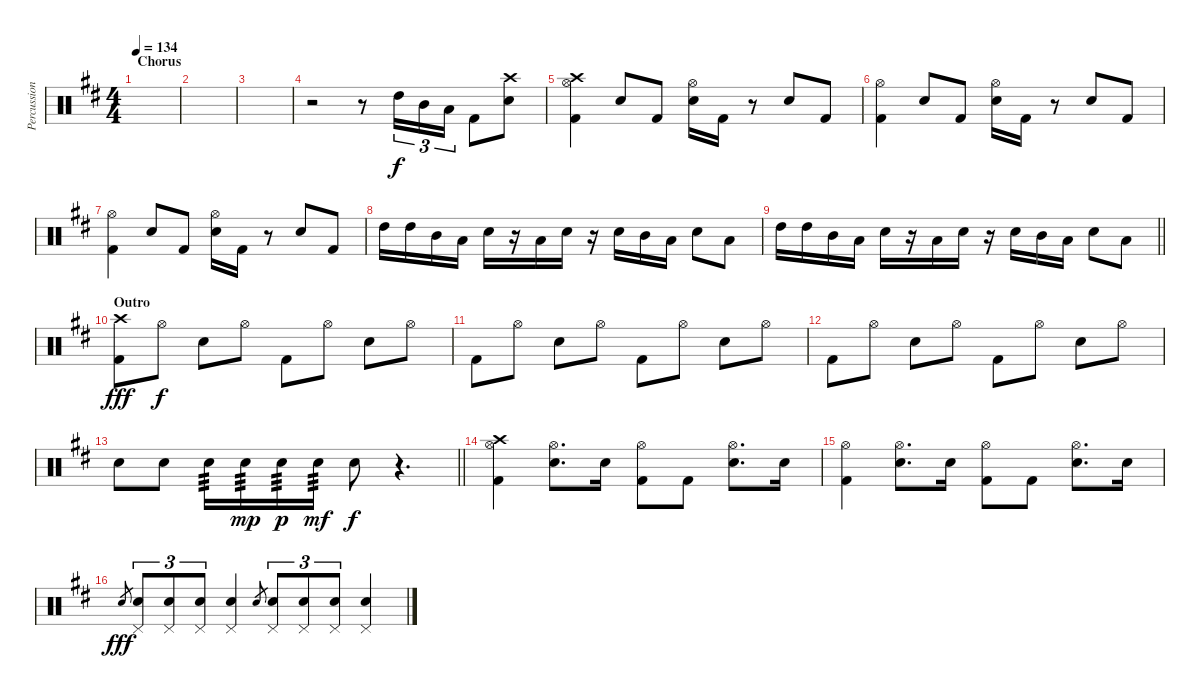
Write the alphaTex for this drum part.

\track ("Percussion" "Percussion") {instrument percussion}
\staff {score}
\articulation defaults
\ts (4 4)
\section ("" "Chorus")
\tempo 134
\clef neutral
\ks bminor
|
|
|
r.2 r.8 "High Tom (hit)".16{tu (3 2) dy f} "Mid Tom (hit)".16{tu (3 2)} "Low Tom (hit)".16{tu (3 2)} "Kick (hit) 2".8 ("Crash high (hit)" "Snare (hit) 2").8 |
("Crash high (hit)" "Hi-Hat (open)" "Kick (hit) 2").4 "Snare (hit) 2".8 "Kick (hit) 2".8 ("Hi-Hat (open)" "Snare (hit) 2").16 "Kick (hit) 2".16 r.8 "Snare (hit) 2".8 "Kick (hit) 2".8 |
("Hi-Hat (open)" "Kick (hit) 2").4 "Snare (hit) 2".8 "Kick (hit) 2".8 ("Hi-Hat (open)" "Snare (hit) 2").16 "Kick (hit) 2".16 r.8 "Snare (hit) 2".8 "Kick (hit) 2".8 |
("Hi-Hat (open)" "Kick (hit) 2").4 "Snare (hit) 2".8 "Kick (hit) 2".8 ("Hi-Hat (open)" "Snare (hit) 2").16 "Kick (hit) 2".16 r.8 "Snare (hit) 2".8 "Kick (hit) 2".8 |
"High Tom (hit)".16 "High Tom (hit)".16 "Mid Tom (hit)".16 "Low Tom (hit)".16 "Snare (hit) 2".16 r.16 "Low Tom (hit)".16 "Snare (hit) 2".16 r.16 "Snare (hit) 2".16 "Mid Tom (hit)".16 "Low Tom (hit)".16 "Snare (hit) 2".8 "Low Tom (hit)".8 |
\barLineRight lightlight "High Tom (hit)".16 "High Tom (hit)".16 "Mid Tom (hit)".16 "Low Tom (hit)".16 "Snare (hit) 2".16
r.16 "Low Tom (hit)".16 "Snare (hit) 2".16 r.16 "Snare (hit) 2".16 "Mid Tom (hit)".16 "Low Tom (hit)".16 "Snare (hit) 2".8 "Low Tom (hit)".8 |
\section ("" "Outro")
("Crash high (hit)" "Kick (hit) 2").8{dy fff} "Hi-Hat (open)".8{dy f} "Snare (hit) 2".8 "Hi-Hat (open)".8 "Kick (hit) 2".8 "Hi-Hat (open)".8 "Snare (hit) 2".8 "Hi-Hat (open)".8 |
"Kick (hit) 2".8 "Hi-Hat (open)".8 "Snare (hit) 2".8 "Hi-Hat (open)".8 "Kick (hit) 2".8 "Hi-Hat (open)".8 "Snare (hit) 2".8 "Hi-Hat (open)".8 |
"Kick (hit) 2".8 "Hi-Hat (open)".8 "Snare (hit) 2".8 "Hi-Hat (open)".8 "Kick (hit) 2".8 "Hi-Hat (open)".8 "Snare (hit) 2".8 "Hi-Hat (open)".8 |
\barLineRight lightlight "Snare (hit) 2".8 "Snare (hit) 2".8 "Snare (hit) 2".16{tp 3} "Snare (hit) 2".16{tp 3 dy mp} "Snare (hit) 2".16{tp 3 dy p} "Snare (hit) 2".16{tp 3 dy mf} "Snare (hit) 2".8{dy f}
r.4{d} |
("Crash high (hit)" "Hi-Hat (open)" "Kick (hit) 2").4 ("Hi-Hat (open)" "Snare (hit) 2").8{d} "Snare (hit) 2".16 ("Hi-Hat (open)" "Kick (hit) 2").8 "Kick (hit) 2".8 ("Hi-Hat (open)" "Snare (hit) 2").8{d} "Snare (hit) 2".16 |
("Hi-Hat (open)" "Kick (hit) 2").4 ("Hi-Hat (open)" "Snare (hit) 2").8{d} "Snare (hit) 2".16 ("Hi-Hat (open)" "Kick (hit) 2").8 "Kick (hit) 2".8 ("Hi-Hat (open)" "Snare (hit) 2").8{d} "Snare (hit) 2".16 |
"Snare (hit) 2".8{gr dy fff} ("Snare (hit) 2" "Pedal Hi-Hat (hit)").8{tu (3 2)} ("Snare (hit) 2" "Pedal Hi-Hat (hit)").8{tu (3 2)} ("Snare (hit) 2" "Pedal Hi-Hat (hit)").8{tu (3 2)} ("Snare (hit) 2" "Pedal Hi-Hat (hit)").4 "Snare (hit) 2".8{gr} ("Snare (hit) 2" "Pedal Hi-Hat (hit)").8{tu (3 2)} ("Snare (hit) 2" "Pedal Hi-Hat (hit)").8{tu (3 2)} ("Snare (hit) 2" "Pedal Hi-Hat (hit)").8{tu (3 2)} ("Snare (hit) 2" "Pedal Hi-Hat (hit)").4
